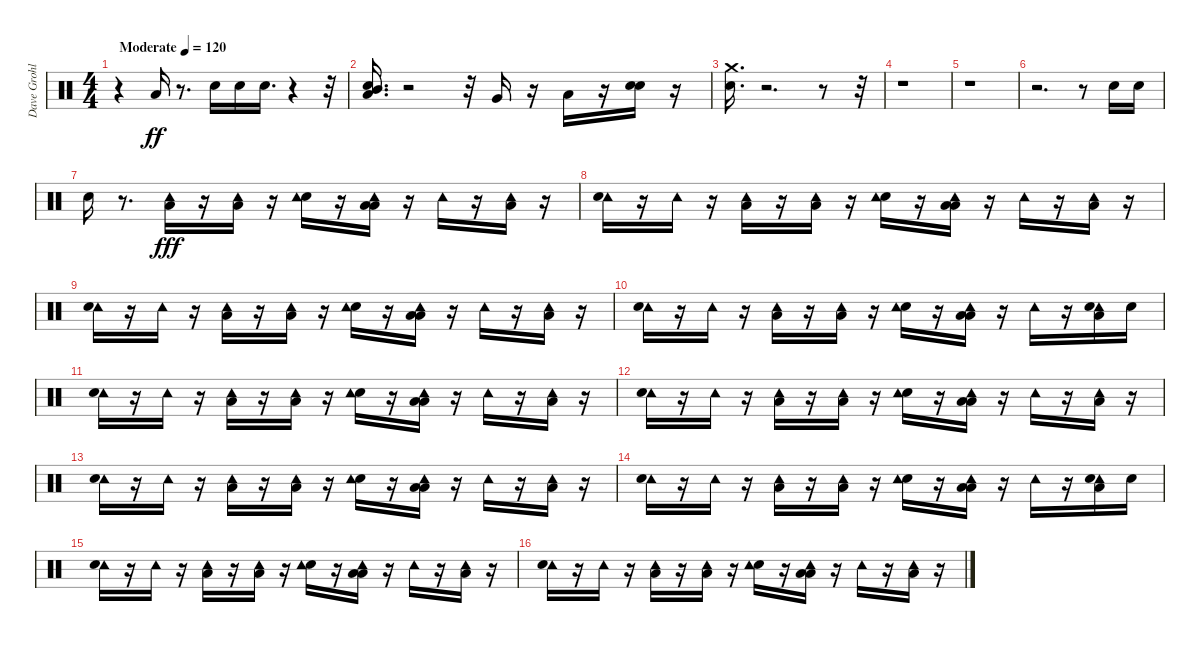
\track ("Dave Grohl " "Dave Grohl") {instrument percussion}
\staff {score}
\articulation defaults
\ts (4 4)
\tempo (120 "Moderate")
\clef neutral
\ks c
r.4{dy ff} "Low Floor Tom (hit)".16 r.8{d} "Electric Snare (hit)".16 "Electric Snare (hit)".16 "Electric Snare (hit)".16{d} r.4 r.32 |
("Electric Snare (hit)" "Mid Tom (hit)" "Low Floor Tom (hit)").16{d} r.2 r.32 "Very Low Tom (hit)".16 r.16 "Low Floor Tom (hit)".16 r.16 ("Electric Snare (hit)" "Snare (hit) 2").16 r.16 |
("Electric Snare (hit)" "Crash medium (hit)").16{d} r.2{d} r.8 r.32 |
r.1 |
r.1 |
r.2{d} r.8 "Snare (hit) 2".16 "Snare (hit) 2".16 |
"Snare (hit) 2".16 r.8{d} ("Low Floor Tom (hit)" "Tambourine (hit)").16{dy fff} r.16 ("Low Floor Tom (hit)" "Tambourine (hit)").16 r.16 ("Snare (hit) 2" "Tambourine (hit)").16 r.16 ("Tambourine (hit)" "Low Floor Tom (hit)" "Low Tom (hit)").16 r.16 "Tambourine (hit)".16 r.16 ("Tambourine (hit)" "Low Floor Tom (hit)").16 r.16 |
("Tambourine (hit)" "Snare (hit) 2").16 r.16 "Tambourine (hit)".16 r.16 ("Low Floor Tom (hit)" "Tambourine (hit)").16 r.16 ("Low Floor Tom (hit)" "Tambourine (hit)").16 r.16 ("Snare (hit) 2" "Tambourine (hit)").16 r.16 ("Tambourine (hit)" "Low Floor Tom (hit)" "Low Tom (hit)").16 r.16 "Tambourine (hit)".16 r.16 ("Tambourine (hit)" "Low Floor Tom (hit)").16 r.16 |
("Tambourine (hit)" "Snare (hit) 2").16 r.16 "Tambourine (hit)".16 r.16 ("Low Floor Tom (hit)" "Tambourine (hit)").16 r.16 ("Low Floor Tom (hit)" "Tambourine (hit)").16 r.16 ("Snare (hit) 2" "Tambourine (hit)").16 r.16 ("Tambourine (hit)" "Low Floor Tom (hit)" "Low Tom (hit)").16 r.16 "Tambourine (hit)".16 r.16 ("Tambourine (hit)" "Low Floor Tom (hit)").16 r.16 |
("Tambourine (hit)" "Snare (hit) 2").16 r.16 "Tambourine (hit)".16 r.16 ("Low Floor Tom (hit)" "Tambourine (hit)").16 r.16 ("Low Floor Tom (hit)" "Tambourine (hit)").16 r.16 ("Snare (hit) 2" "Tambourine (hit)").16 r.16 ("Tambourine (hit)" "Low Floor Tom (hit)" "Low Tom (hit)").16 r.16 "Tambourine (hit)".16 r.16 ("Tambourine (hit)" "Low Floor Tom (hit)" "Snare (hit) 2").16 "Snare (hit) 2".16 |
("Tambourine (hit)" "Snare (hit) 2").16 r.16 "Tambourine (hit)".16 r.16 ("Low Floor Tom (hit)" "Tambourine (hit)").16 r.16 ("Low Floor Tom (hit)" "Tambourine (hit)").16 r.16 ("Snare (hit) 2" "Tambourine (hit)").16 r.16 ("Tambourine (hit)" "Low Floor Tom (hit)" "Low Tom (hit)").16 r.16 "Tambourine (hit)".16 r.16 ("Tambourine (hit)" "Low Floor Tom (hit)").16 r.16 |
("Tambourine (hit)" "Snare (hit) 2").16 r.16 "Tambourine (hit)".16 r.16 ("Low Floor Tom (hit)" "Tambourine (hit)").16 r.16 ("Low Floor Tom (hit)" "Tambourine (hit)").16 r.16 ("Snare (hit) 2" "Tambourine (hit)").16 r.16 ("Tambourine (hit)" "Low Floor Tom (hit)" "Low Tom (hit)").16 r.16 "Tambourine (hit)".16 r.16 ("Tambourine (hit)" "Low Floor Tom (hit)").16 r.16 |
("Tambourine (hit)" "Snare (hit) 2").16 r.16 "Tambourine (hit)".16 r.16 ("Low Floor Tom (hit)" "Tambourine (hit)").16 r.16 ("Low Floor Tom (hit)" "Tambourine (hit)").16 r.16 ("Snare (hit) 2" "Tambourine (hit)").16 r.16 ("Tambourine (hit)" "Low Floor Tom (hit)" "Low Tom (hit)").16 r.16 "Tambourine (hit)".16 r.16 ("Tambourine (hit)" "Low Floor Tom (hit)").16 r.16 |
("Tambourine (hit)" "Snare (hit) 2").16 r.16 "Tambourine (hit)".16 r.16 ("Low Floor Tom (hit)" "Tambourine (hit)").16 r.16 ("Low Floor Tom (hit)" "Tambourine (hit)").16 r.16 ("Snare (hit) 2" "Tambourine (hit)").16 r.16 ("Tambourine (hit)" "Low Floor Tom (hit)" "Low Tom (hit)").16 r.16 "Tambourine (hit)".16 r.16 ("Tambourine (hit)" "Low Floor Tom (hit)" "Snare (hit) 2").16 "Snare (hit) 2".16 |
("Tambourine (hit)" "Snare (hit) 2").16 r.16 "Tambourine (hit)".16 r.16 ("Low Floor Tom (hit)" "Tambourine (hit)").16 r.16 ("Low Floor Tom (hit)" "Tambourine (hit)").16 r.16 ("Snare (hit) 2" "Tambourine (hit)").16 r.16 ("Tambourine (hit)" "Low Floor Tom (hit)" "Low Tom (hit)").16 r.16 "Tambourine (hit)".16 r.16 ("Tambourine (hit)" "Low Floor Tom (hit)").16 r.16 |
("Tambourine (hit)" "Snare (hit) 2").16 r.16 "Tambourine (hit)".16 r.16 ("Low Floor Tom (hit)" "Tambourine (hit)").16 r.16 ("Low Floor Tom (hit)" "Tambourine (hit)").16 r.16 ("Snare (hit) 2" "Tambourine (hit)").16 r.16 ("Tambourine (hit)" "Low Floor Tom (hit)" "Low Tom (hit)").16 r.16 "Tambourine (hit)".16 r.16 ("Tambourine (hit)" "Low Floor Tom (hit)").16 r.16
